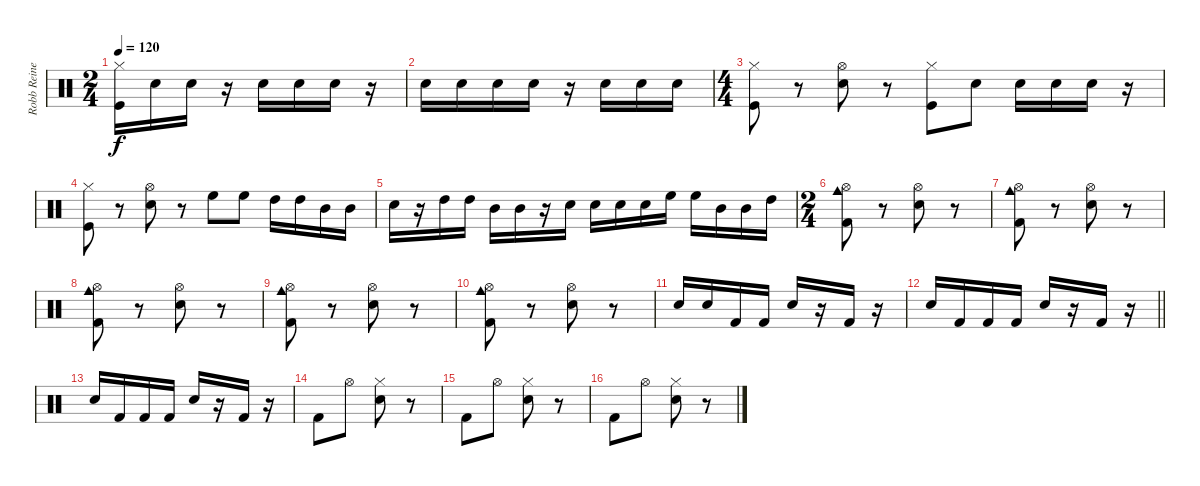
\track ("Robb Reiner" "Robb Reine") {instrument percussion}
\staff {score}
\articulation defaults
\ts (2 4)
\tempo 120
\clef neutral
\ks c
("Hi-Hat (closed)" "Kick (hit)").16{dy f} "Snare (hit) 2".16 "Snare (hit) 2".16 r.16 "Snare (hit) 2".16 "Snare (hit) 2".16 "Snare (hit) 2".16 r.16 |
"Snare (hit) 2".16 "Snare (hit) 2".16 "Snare (hit) 2".16 "Snare (hit) 2".16 r.16 "Snare (hit) 2".16 "Snare (hit) 2".16 "Snare (hit) 2".16 |
\ts (4 4)
("Hi-Hat (closed)" "Kick (hit)").8 r.8 ("Hi-Hat (open)" "Snare (hit) 2").8 r.8 ("Hi-Hat (closed)" "Kick (hit)").8 "Snare (hit) 2".8 "Snare (hit) 2".16 "Snare (hit) 2".16 "Snare (hit) 2".16 r.16 |
("Hi-Hat (closed)" "Kick (hit)").8 r.8 ("Hi-Hat (open)" "Snare (hit) 2").8 r.8 "High Floor Tom (hit)".8 "High Floor Tom (hit)".8 "High Tom (hit)".16 "High Tom (hit)".16 "Mid Tom (hit)".16 "Mid Tom (hit)".16 |
"Snare (hit) 2".16 r.16 "High Tom (hit)".16 "High Tom (hit)".16 "Mid Tom (hit)".16 "Mid Tom (hit)".16 r.16 "Snare (hit) 2".16 "Snare (hit) 2".16 "Snare (hit) 2".16 "Snare (hit) 2".16 "High Floor Tom (hit)".16 "High Floor Tom (hit)".16 "Mid Tom (hit)".16 "Mid Tom (hit)".16 "High Tom (hit)".16 |
\ts (2 4)
("Cowbell medium (hit)" "Hi-Hat (open)" "Kick (hit) 2").8 r.8 ("Hi-Hat (open)" "Snare (hit) 2").8 r.8 |
("Cowbell medium (hit)" "Hi-Hat (open)" "Kick (hit) 2").8 r.8 ("Hi-Hat (open)" "Snare (hit) 2").8 r.8 |
("Cowbell medium (hit)" "Hi-Hat (open)" "Kick (hit) 2").8 r.8 ("Hi-Hat (open)" "Snare (hit) 2").8 r.8 |
("Cowbell medium (hit)" "Hi-Hat (open)" "Kick (hit) 2").8 r.8 ("Hi-Hat (open)" "Snare (hit) 2").8 r.8 |
("Cowbell medium (hit)" "Hi-Hat (open)" "Kick (hit) 2").8 r.8 ("Hi-Hat (open)" "Snare (hit) 2").8 r.8 |
"Snare (hit) 2".16 "Snare (hit) 2".16 "Kick (hit) 2".16 "Kick (hit) 2".16 "Snare (hit) 2".16 r.16 "Kick (hit) 2".16 r.16 |
\barLineRight lightlight "Snare (hit) 2".16 "Kick (hit) 2".16 "Kick (hit) 2".16 "Kick (hit) 2".16 "Snare (hit) 2".16
r.16 "Kick (hit) 2".16 r.16 |
"Snare (hit) 2".16 "Kick (hit) 2".16 "Kick (hit) 2".16 "Kick (hit) 2".16 "Snare (hit) 2".16 r.16 "Kick (hit) 2".16 r.16 |
"Kick (hit) 2".8 "Hi-Hat (open)".8 ("Hi-Hat (closed)" "Snare (hit) 2").8 r.8 |
"Kick (hit) 2".8 "Hi-Hat (open)".8 ("Hi-Hat (closed)" "Snare (hit) 2").8 r.8 |
"Kick (hit) 2".8 "Hi-Hat (open)".8 ("Hi-Hat (closed)" "Snare (hit) 2").8 r.8
